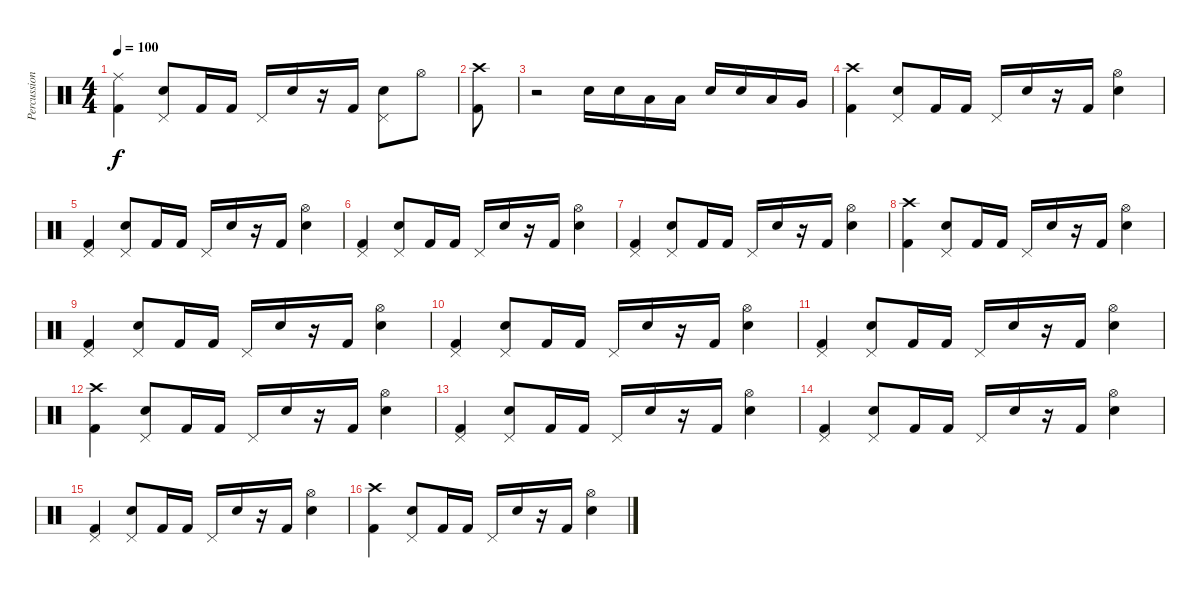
\track ("Percussion" "Percussion") {instrument percussion}
\staff {score}
\articulation defaults
\ts (4 4)
\tempo 100
\clef neutral
\ks c
("Ride (middle)" "Kick (hit) 2").4{dy f} ("Pedal Hi-Hat (hit)" "Electric Snare (hit)").8 "Kick (hit) 2".16 "Kick (hit) 2".16 "Pedal Hi-Hat (hit)".16 "Electric Snare (hit)".16 r.16 "Kick (hit) 2".16 ("Pedal Hi-Hat (hit)" "Electric Snare (hit)").8 "Hi-Hat (open)".8 |
("Crash high (hit)" "Kick (hit) 2").8 |
r.2 "Electric Snare (hit)".16 "Electric Snare (hit)".16 "Low Tom (hit)".16 "Low Tom (hit)".16 "Electric Snare (hit)".16 "Electric Snare (hit)".16 "Low Tom (hit)".16 "Very Low Tom (hit)".16 |
("Crash high (hit)" "Kick (hit) 2").4 ("Pedal Hi-Hat (hit)" "Electric Snare (hit)").8 "Kick (hit) 2".16 "Kick (hit) 2".16 "Pedal Hi-Hat (hit)".16 "Electric Snare (hit)".16 r.16 "Kick (hit) 2".16 ("Hi-Hat (open)" "Electric Snare (hit)").4 |
("Pedal Hi-Hat (hit)" "Kick (hit) 2").4 ("Pedal Hi-Hat (hit)" "Electric Snare (hit)").8 "Kick (hit) 2".16 "Kick (hit) 2".16 "Pedal Hi-Hat (hit)".16 "Electric Snare (hit)".16 r.16 "Kick (hit) 2".16 ("Hi-Hat (open)" "Electric Snare (hit)").4 |
("Pedal Hi-Hat (hit)" "Kick (hit) 2").4 ("Pedal Hi-Hat (hit)" "Electric Snare (hit)").8 "Kick (hit) 2".16 "Kick (hit) 2".16 "Pedal Hi-Hat (hit)".16 "Electric Snare (hit)".16 r.16 "Kick (hit) 2".16 ("Hi-Hat (open)" "Electric Snare (hit)").4 |
("Pedal Hi-Hat (hit)" "Kick (hit) 2").4 ("Pedal Hi-Hat (hit)" "Electric Snare (hit)").8 "Kick (hit) 2".16 "Kick (hit) 2".16 "Pedal Hi-Hat (hit)".16 "Electric Snare (hit)".16 r.16 "Kick (hit) 2".16 ("Hi-Hat (open)" "Electric Snare (hit)").4 |
("Crash high (hit)" "Kick (hit) 2").4 ("Pedal Hi-Hat (hit)" "Electric Snare (hit)").8 "Kick (hit) 2".16 "Kick (hit) 2".16 "Pedal Hi-Hat (hit)".16 "Electric Snare (hit)".16 r.16 "Kick (hit) 2".16 ("Hi-Hat (open)" "Electric Snare (hit)").4 |
("Pedal Hi-Hat (hit)" "Kick (hit) 2").4 ("Pedal Hi-Hat (hit)" "Electric Snare (hit)").8 "Kick (hit) 2".16 "Kick (hit) 2".16 "Pedal Hi-Hat (hit)".16 "Electric Snare (hit)".16 r.16 "Kick (hit) 2".16 ("Hi-Hat (open)" "Electric Snare (hit)").4 |
("Pedal Hi-Hat (hit)" "Kick (hit) 2").4 ("Pedal Hi-Hat (hit)" "Electric Snare (hit)").8 "Kick (hit) 2".16 "Kick (hit) 2".16 "Pedal Hi-Hat (hit)".16 "Electric Snare (hit)".16 r.16 "Kick (hit) 2".16 ("Hi-Hat (open)" "Electric Snare (hit)").4 |
("Pedal Hi-Hat (hit)" "Kick (hit) 2").4 ("Pedal Hi-Hat (hit)" "Electric Snare (hit)").8 "Kick (hit) 2".16 "Kick (hit) 2".16 "Pedal Hi-Hat (hit)".16 "Electric Snare (hit)".16 r.16 "Kick (hit) 2".16 ("Hi-Hat (open)" "Electric Snare (hit)").4 |
("Crash high (hit)" "Kick (hit) 2").4 ("Pedal Hi-Hat (hit)" "Electric Snare (hit)").8 "Kick (hit) 2".16 "Kick (hit) 2".16 "Pedal Hi-Hat (hit)".16 "Electric Snare (hit)".16 r.16 "Kick (hit) 2".16 ("Hi-Hat (open)" "Electric Snare (hit)").4 |
("Pedal Hi-Hat (hit)" "Kick (hit) 2").4 ("Pedal Hi-Hat (hit)" "Electric Snare (hit)").8 "Kick (hit) 2".16 "Kick (hit) 2".16 "Pedal Hi-Hat (hit)".16 "Electric Snare (hit)".16 r.16 "Kick (hit) 2".16 ("Hi-Hat (open)" "Electric Snare (hit)").4 |
("Pedal Hi-Hat (hit)" "Kick (hit) 2").4 ("Pedal Hi-Hat (hit)" "Electric Snare (hit)").8 "Kick (hit) 2".16 "Kick (hit) 2".16 "Pedal Hi-Hat (hit)".16 "Electric Snare (hit)".16 r.16 "Kick (hit) 2".16 ("Hi-Hat (open)" "Electric Snare (hit)").4 |
("Pedal Hi-Hat (hit)" "Kick (hit) 2").4 ("Pedal Hi-Hat (hit)" "Electric Snare (hit)").8 "Kick (hit) 2".16 "Kick (hit) 2".16 "Pedal Hi-Hat (hit)".16 "Electric Snare (hit)".16 r.16 "Kick (hit) 2".16 ("Hi-Hat (open)" "Electric Snare (hit)").4 |
("Crash high (hit)" "Kick (hit) 2").4 ("Pedal Hi-Hat (hit)" "Electric Snare (hit)").8 "Kick (hit) 2".16 "Kick (hit) 2".16 "Pedal Hi-Hat (hit)".16 "Electric Snare (hit)".16 r.16 "Kick (hit) 2".16 ("Hi-Hat (open)" "Electric Snare (hit)").4
